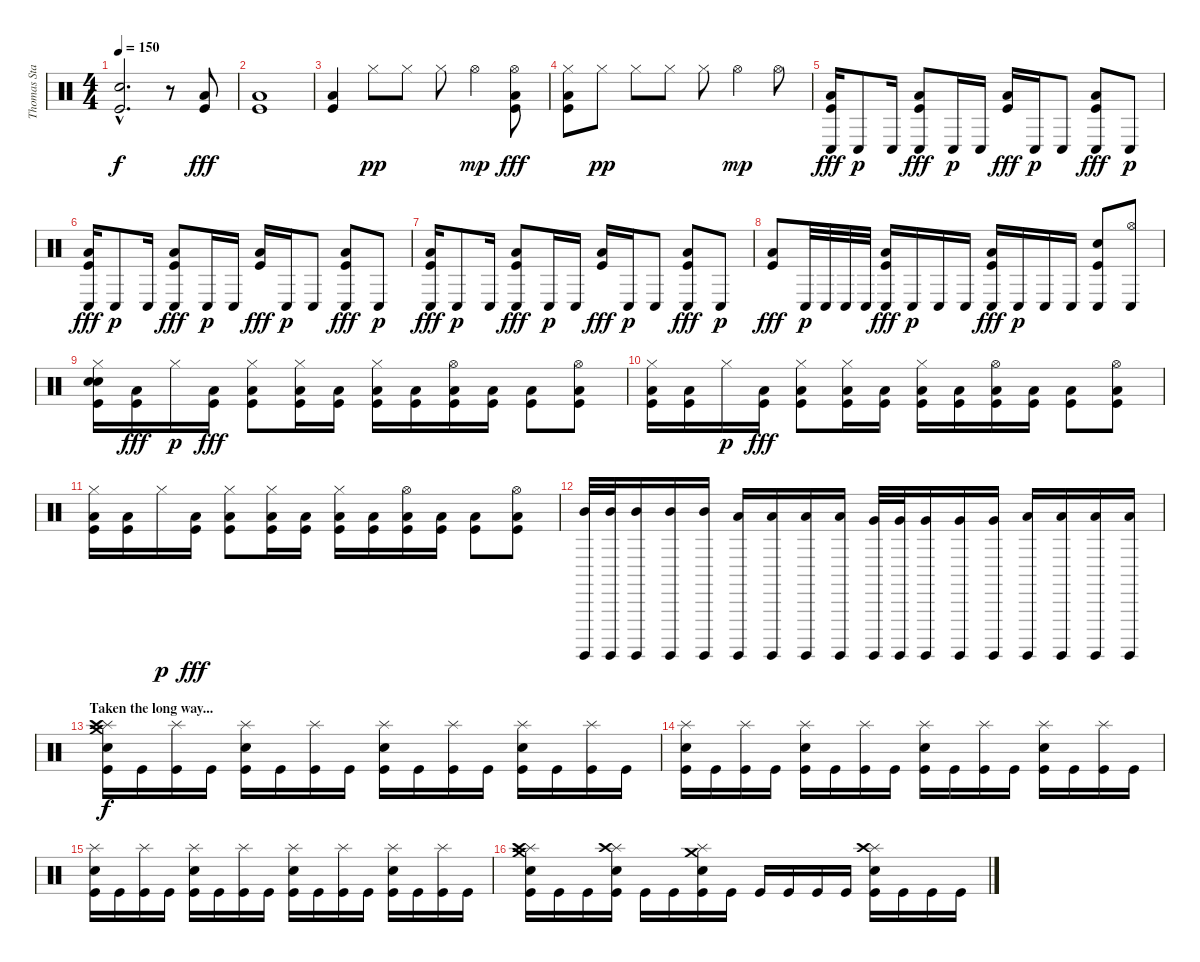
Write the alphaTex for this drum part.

\track ("Thomas Stauch" "Thomas Sta") {instrument percussion}
\staff {score}
\articulation defaults
\ts (4 4)
\tempo 150
\clef neutral
\ks c
("Electric Snare (hit)"{hac} "Kick (hit)"{hac}).2{d dy f} r.8 ("Low Floor Tom (hit)" "Kick (hit)").8{dy fff} |
("Low Floor Tom (hit)" "Kick (hit)").1 |
("Low Floor Tom (hit)" "Kick (hit)").4 "Hi-Hat (closed)".8{dy pp} "Hi-Hat (closed)".8 "Hi-Hat (closed)".8 "Hi-Hat (open)".4{dy mp} ("Hi-Hat (open)" "Low Floor Tom (hit)" "Kick (hit)").8{dy fff} |
("Hi-Hat (closed)" "Low Floor Tom (hit)" "Kick (hit)").8 "Hi-Hat (closed)".8{dy pp} "Hi-Hat (closed)".8 "Hi-Hat (closed)".8 "Hi-Hat (closed)".8 "Hi-Hat (open)".4{dy mp} "Hi-Hat (open)".8 |
("Conga low (hit)" "Low Floor Tom (hit)" "Kick (hit)").16{dy fff} "Conga low (hit)".8{dy p} "Conga low (hit)".16 ("Conga low (hit)" "Low Floor Tom (hit)" "Kick (hit)").8{dy fff} "Conga low (hit)".16{dy p} "Conga low (hit)".16 ("Low Floor Tom (hit)" "Kick (hit)").16{dy fff} "Conga low (hit)".16{dy p} "Conga low (hit)".8 ("Conga low (hit)" "Low Floor Tom (hit)" "Kick (hit)").8{dy fff} "Conga low (hit)".8{dy p} |
("Conga low (hit)" "Low Floor Tom (hit)" "Kick (hit)").16{dy fff} "Conga low (hit)".8{dy p} "Conga low (hit)".16 ("Conga low (hit)" "Low Floor Tom (hit)" "Kick (hit)").8{dy fff} "Conga low (hit)".16{dy p} "Conga low (hit)".16 ("Low Floor Tom (hit)" "Kick (hit)").16{dy fff} "Conga low (hit)".16{dy p} "Conga low (hit)".8 ("Conga low (hit)" "Low Floor Tom (hit)" "Kick (hit)").8{dy fff} "Conga low (hit)".8{dy p} |
("Conga low (hit)" "Low Floor Tom (hit)" "Kick (hit)").16{dy fff} "Conga low (hit)".8{dy p} "Conga low (hit)".16 ("Conga low (hit)" "Low Floor Tom (hit)" "Kick (hit)").8{dy fff} "Conga low (hit)".16{dy p} "Conga low (hit)".16 ("Low Floor Tom (hit)" "Kick (hit)").16{dy fff} "Conga low (hit)".16{dy p} "Conga low (hit)".8 ("Conga low (hit)" "Low Floor Tom (hit)" "Kick (hit)").8{dy fff} "Conga low (hit)".8{dy p} |
("Low Floor Tom (hit)" "Kick (hit)").8{dy fff} "Conga low (hit)".32{dy p} "Conga low (hit)".32 "Conga low (hit)".32 "Conga low (hit)".32 ("Conga low (hit)" "Low Floor Tom (hit)" "Kick (hit)").16{dy fff} "Conga low (hit)".16{dy p} "Conga low (hit)".16 "Conga low (hit)".16 ("Conga low (hit)" "Low Floor Tom (hit)" "Kick (hit)").16{dy fff} "Conga low (hit)".16{dy p} "Conga low (hit)".16 "Conga low (hit)".16 ("Conga low (hit)" "Electric Snare (hit)" "Kick (hit)").8 ("Hi-Hat (open)" "Conga low (hit)").8 |
("Hi-Hat (closed)" "Snare (hit) 2" "Electric Snare (hit)" "Kick (hit)").16 ("Low Floor Tom (hit)" "Kick (hit)").16{dy fff} "Hi-Hat (closed)".16{dy p} ("Low Floor Tom (hit)" "Kick (hit)").16{dy fff} ("Hi-Hat (closed)" "Low Floor Tom (hit)" "Kick (hit)").8 ("Hi-Hat (closed)" "Low Floor Tom (hit)" "Kick (hit)").16 ("Low Floor Tom (hit)" "Kick (hit)").16 ("Hi-Hat (closed)" "Low Floor Tom (hit)" "Kick (hit)").16 ("Low Floor Tom (hit)" "Kick (hit)").16 ("Hi-Hat (open)" "Low Floor Tom (hit)" "Kick (hit)").16 ("Low Floor Tom (hit)" "Kick (hit)").16 ("Low Floor Tom (hit)" "Kick (hit)").8 ("Hi-Hat (open)" "Low Floor Tom (hit)" "Kick (hit)").8 |
("Hi-Hat (closed)" "Low Floor Tom (hit)" "Kick (hit)").16 ("Low Floor Tom (hit)" "Kick (hit)").16 "Hi-Hat (closed)".16{dy p} ("Low Floor Tom (hit)" "Kick (hit)").16{dy fff} ("Hi-Hat (closed)" "Low Floor Tom (hit)" "Kick (hit)").8 ("Hi-Hat (closed)" "Low Floor Tom (hit)" "Kick (hit)").16 ("Low Floor Tom (hit)" "Kick (hit)").16 ("Hi-Hat (closed)" "Low Floor Tom (hit)" "Kick (hit)").16 ("Low Floor Tom (hit)" "Kick (hit)").16 ("Hi-Hat (open)" "Low Floor Tom (hit)" "Kick (hit)").16 ("Low Floor Tom (hit)" "Kick (hit)").16 ("Low Floor Tom (hit)" "Kick (hit)").8 ("Hi-Hat (open)" "Low Floor Tom (hit)" "Kick (hit)").8 |
("Hi-Hat (closed)" "Low Floor Tom (hit)" "Kick (hit)").16 ("Low Floor Tom (hit)" "Kick (hit)").16 "Hi-Hat (closed)".16{dy p} ("Low Floor Tom (hit)" "Kick (hit)").16{dy fff} ("Hi-Hat (closed)" "Low Floor Tom (hit)" "Kick (hit)").8 ("Hi-Hat (closed)" "Low Floor Tom (hit)" "Kick (hit)").16 ("Low Floor Tom (hit)" "Kick (hit)").16 ("Hi-Hat (closed)" "Low Floor Tom (hit)" "Kick (hit)").16 ("Low Floor Tom (hit)" "Kick (hit)").16 ("Hi-Hat (open)" "Low Floor Tom (hit)" "Kick (hit)").16 ("Low Floor Tom (hit)" "Kick (hit)").16 ("Low Floor Tom (hit)" "Kick (hit)").8 ("Hi-Hat (open)" "Low Floor Tom (hit)" "Kick (hit)").8 |
("Surdo (hit)" "Mid Tom (hit)").32 ("Surdo (hit)" "Mid Tom (hit)").32 ("Surdo (hit)" "Mid Tom (hit)").16 ("Surdo (hit)" "Mid Tom (hit)").16 ("Surdo (hit)" "Mid Tom (hit)").16 ("Surdo (hit)" "Low Tom (hit)").16 ("Surdo (hit)" "Low Tom (hit)").16 ("Surdo (hit)" "Low Tom (hit)").16 ("Surdo (hit)" "Low Tom (hit)").16 ("Surdo (hit)" "Very Low Tom (hit)").32 ("Surdo (hit)" "Very Low Tom (hit)").32 ("Surdo (hit)" "Very Low Tom (hit)").16 ("Surdo (hit)" "Very Low Tom (hit)").16 ("Surdo (hit)" "Very Low Tom (hit)").16 ("Surdo (hit)" "Low Floor Tom (hit)").16 ("Surdo (hit)" "Low Floor Tom (hit)").16 ("Surdo (hit)" "Low Floor Tom (hit)").16 ("Surdo (hit)" "Low Floor Tom (hit)").16 |
\section ("" "Taken the long way...")
("Crash medium (hit)" "Splash (hit)" "Crash high (hit)" "Electric Snare (hit)" "Kick (hit)").16{dy f} "Kick (hit)".16 ("Splash (hit)" "Kick (hit)").16 "Kick (hit)".16 ("Splash (hit)" "Electric Snare (hit)" "Kick (hit)").16 "Kick (hit)".16 ("Splash (hit)" "Kick (hit)").16 "Kick (hit)".16 ("Splash (hit)" "Electric Snare (hit)" "Kick (hit)").16 "Kick (hit)".16 ("Splash (hit)" "Kick (hit)").16 "Kick (hit)".16 ("Splash (hit)" "Electric Snare (hit)" "Kick (hit)").16 "Kick (hit)".16 ("Splash (hit)" "Kick (hit)").16 "Kick (hit)".16 |
("Splash (hit)" "Electric Snare (hit)" "Kick (hit)").16 "Kick (hit)".16 ("Splash (hit)" "Kick (hit)").16 "Kick (hit)".16 ("Splash (hit)" "Electric Snare (hit)" "Kick (hit)").16 "Kick (hit)".16 ("Splash (hit)" "Kick (hit)").16 "Kick (hit)".16 ("Splash (hit)" "Electric Snare (hit)" "Kick (hit)").16 "Kick (hit)".16 ("Splash (hit)" "Kick (hit)").16 "Kick (hit)".16 ("Splash (hit)" "Electric Snare (hit)" "Kick (hit)").16 "Kick (hit)".16 ("Splash (hit)" "Kick (hit)").16 "Kick (hit)".16 |
("Splash (hit)" "Electric Snare (hit)" "Kick (hit)").16 "Kick (hit)".16 ("Splash (hit)" "Kick (hit)").16 "Kick (hit)".16 ("Splash (hit)" "Electric Snare (hit)" "Kick (hit)").16 "Kick (hit)".16 ("Splash (hit)" "Kick (hit)").16 "Kick (hit)".16 ("Splash (hit)" "Electric Snare (hit)" "Kick (hit)").16 "Kick (hit)".16 ("Splash (hit)" "Kick (hit)").16 "Kick (hit)".16 ("Splash (hit)" "Electric Snare (hit)" "Kick (hit)").16 "Kick (hit)".16 ("Splash (hit)" "Kick (hit)").16 "Kick (hit)".16 |
("Crash medium (hit)" "Splash (hit)" "Crash high (hit)" "Electric Snare (hit)" "Kick (hit)").16 "Kick (hit)".16 "Kick (hit)".16 ("Splash (hit)" "Crash high (hit)" "Electric Snare (hit)" "Kick (hit)").16 "Kick (hit)".16 "Kick (hit)".16 ("Crash medium (hit)" "Splash (hit)" "Electric Snare (hit)" "Kick (hit)").16 "Kick (hit)".16 "Kick (hit)".16 "Kick (hit)".16 "Kick (hit)".16 "Kick (hit)".16 ("Splash (hit)" "Crash high (hit)" "Electric Snare (hit)" "Kick (hit)").16 "Kick (hit)".16 "Kick (hit)".16 "Kick (hit)".16
